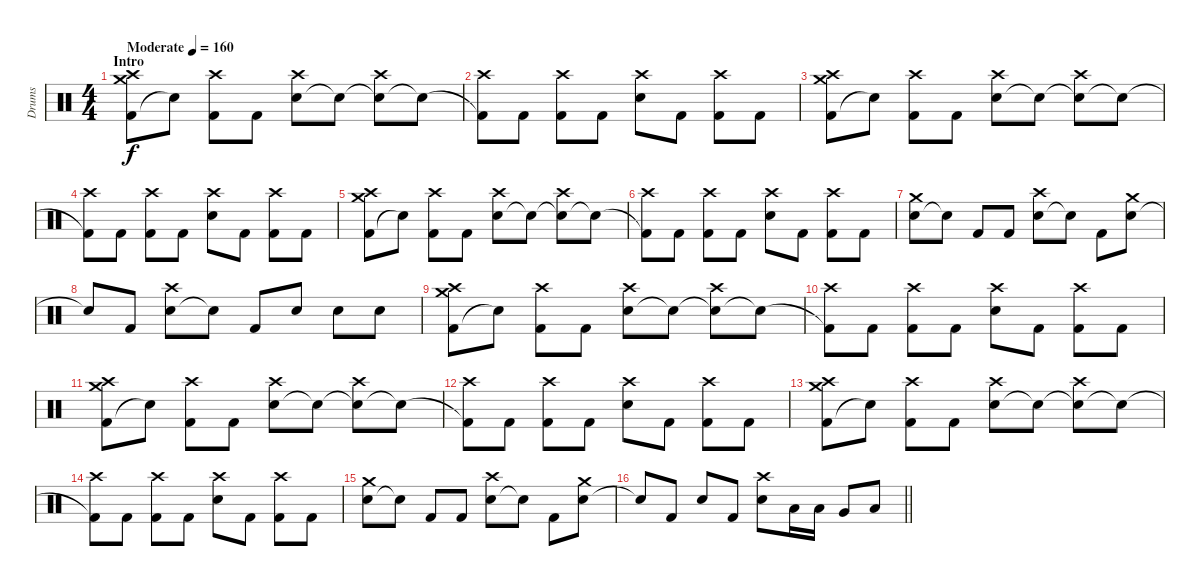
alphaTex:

\track ("Drums" "Drums") {instrument percussion}
\staff {score}
\articulation defaults
\ts (4 4)
\section ("" "Intro")
\tempo (160 "Moderate")
\clef neutral
\ks c
("Kick (hit) 2" "Crash medium (hit)" "Crash high (hit)").8{dy f} "Snare (hit)"{t}.8 ("Kick (hit) 2" "Crash high (hit)").8 "Kick (hit) 2".8 ("Electric Snare (hit)" "Crash high (hit)").8 "Snare (hit)"{t}.8 ("Snare (hit)"{t} "Crash high (hit)").8 "Snare (hit)"{t}.8 |
("Kick (hit) 2"{t} "Crash high (hit)").8 "Kick (hit) 2".8 ("Kick (hit) 2" "Crash high (hit)").8 "Kick (hit) 2".8 ("Electric Snare (hit)" "Crash high (hit)").8 "Kick (hit) 2".8 ("Kick (hit) 2" "Crash high (hit)").8 "Kick (hit) 2".8 |
("Kick (hit) 2" "Crash medium (hit)" "Crash high (hit)").8 "Snare (hit)"{t}.8 ("Kick (hit) 2" "Crash high (hit)").8 "Kick (hit) 2".8 ("Electric Snare (hit)" "Crash high (hit)").8 "Snare (hit)"{t}.8 ("Snare (hit)"{t} "Crash high (hit)").8 "Snare (hit)"{t}.8 |
("Kick (hit) 2"{t} "Crash high (hit)").8 "Kick (hit) 2".8 ("Kick (hit) 2" "Crash high (hit)").8 "Kick (hit) 2".8 ("Electric Snare (hit)" "Crash high (hit)").8 "Kick (hit) 2".8 ("Kick (hit) 2" "Crash high (hit)").8 "Kick (hit) 2".8 |
("Kick (hit) 2" "Crash medium (hit)" "Crash high (hit)").8 "Snare (hit)"{t}.8 ("Kick (hit) 2" "Crash high (hit)").8 "Kick (hit) 2".8 ("Electric Snare (hit)" "Crash high (hit)").8 "Snare (hit)"{t}.8 ("Snare (hit)"{t} "Crash high (hit)").8 "Snare (hit)"{t}.8 |
("Kick (hit) 2"{t} "Crash high (hit)").8 "Kick (hit) 2".8 ("Kick (hit) 2" "Crash high (hit)").8 "Kick (hit) 2".8 ("Electric Snare (hit)" "Crash high (hit)").8 "Kick (hit) 2".8 ("Kick (hit) 2" "Crash high (hit)").8 "Kick (hit) 2".8 |
("Electric Snare (hit)" "Crash medium (hit)").8 "Snare (hit)"{t}.8 "Kick (hit) 2".8 "Kick (hit) 2".8 ("Electric Snare (hit)" "Crash high (hit)").8 "Snare (hit)"{t}.8 "Kick (hit) 2".8 ("Electric Snare (hit)" "Crash medium (hit)").8 |
"Snare (hit)"{t}.8 "Kick (hit) 2".8 ("Electric Snare (hit)" "Crash high (hit)").8 "Snare (hit)"{t}.8 "Kick (hit) 2".8 "Electric Snare (hit)".8 "Electric Snare (hit)".8 "Electric Snare (hit)".8 |
("Kick (hit) 2" "Crash medium (hit)" "Crash high (hit)").8 "Snare (hit)"{t}.8 ("Kick (hit) 2" "Crash high (hit)").8 "Kick (hit) 2".8 ("Electric Snare (hit)" "Crash high (hit)").8 "Snare (hit)"{t}.8 ("Snare (hit)"{t} "Crash high (hit)").8 "Snare (hit)"{t}.8 |
("Kick (hit) 2"{t} "Crash high (hit)").8 "Kick (hit) 2".8 ("Kick (hit) 2" "Crash high (hit)").8 "Kick (hit) 2".8 ("Electric Snare (hit)" "Crash high (hit)").8 "Kick (hit) 2".8 ("Kick (hit) 2" "Crash high (hit)").8 "Kick (hit) 2".8 |
("Kick (hit) 2" "Crash medium (hit)" "Crash high (hit)").8 "Snare (hit)"{t}.8 ("Kick (hit) 2" "Crash high (hit)").8 "Kick (hit) 2".8 ("Electric Snare (hit)" "Crash high (hit)").8 "Snare (hit)"{t}.8 ("Snare (hit)"{t} "Crash high (hit)").8 "Snare (hit)"{t}.8 |
("Kick (hit) 2"{t} "Crash high (hit)").8 "Kick (hit) 2".8 ("Kick (hit) 2" "Crash high (hit)").8 "Kick (hit) 2".8 ("Electric Snare (hit)" "Crash high (hit)").8 "Kick (hit) 2".8 ("Kick (hit) 2" "Crash high (hit)").8 "Kick (hit) 2".8 |
("Kick (hit) 2" "Crash medium (hit)" "Crash high (hit)").8 "Snare (hit)"{t}.8 ("Kick (hit) 2" "Crash high (hit)").8 "Kick (hit) 2".8 ("Electric Snare (hit)" "Crash high (hit)").8 "Snare (hit)"{t}.8 ("Snare (hit)"{t} "Crash high (hit)").8 "Snare (hit)"{t}.8 |
("Kick (hit) 2"{t} "Crash high (hit)").8 "Kick (hit) 2".8 ("Kick (hit) 2" "Crash high (hit)").8 "Kick (hit) 2".8 ("Electric Snare (hit)" "Crash high (hit)").8 "Kick (hit) 2".8 ("Kick (hit) 2" "Crash high (hit)").8 "Kick (hit) 2".8 |
("Electric Snare (hit)" "Crash medium (hit)").8 "Snare (hit)"{t}.8 "Kick (hit) 2".8 "Kick (hit) 2".8 ("Electric Snare (hit)" "Crash high (hit)").8 "Snare (hit)"{t}.8 "Kick (hit) 2".8 ("Electric Snare (hit)" "Crash medium (hit)").8 |
\barLineRight lightlight "Snare (hit)"{t}.8 "Kick (hit) 2".8 "Electric Snare (hit)".8 "Kick (hit) 2".8
("Electric Snare (hit)" "Crash high (hit)").8 "Low Tom (hit)".16 "Low Tom (hit)".16 "Very Low Tom (hit)".8 "Low Floor Tom (hit)".8
